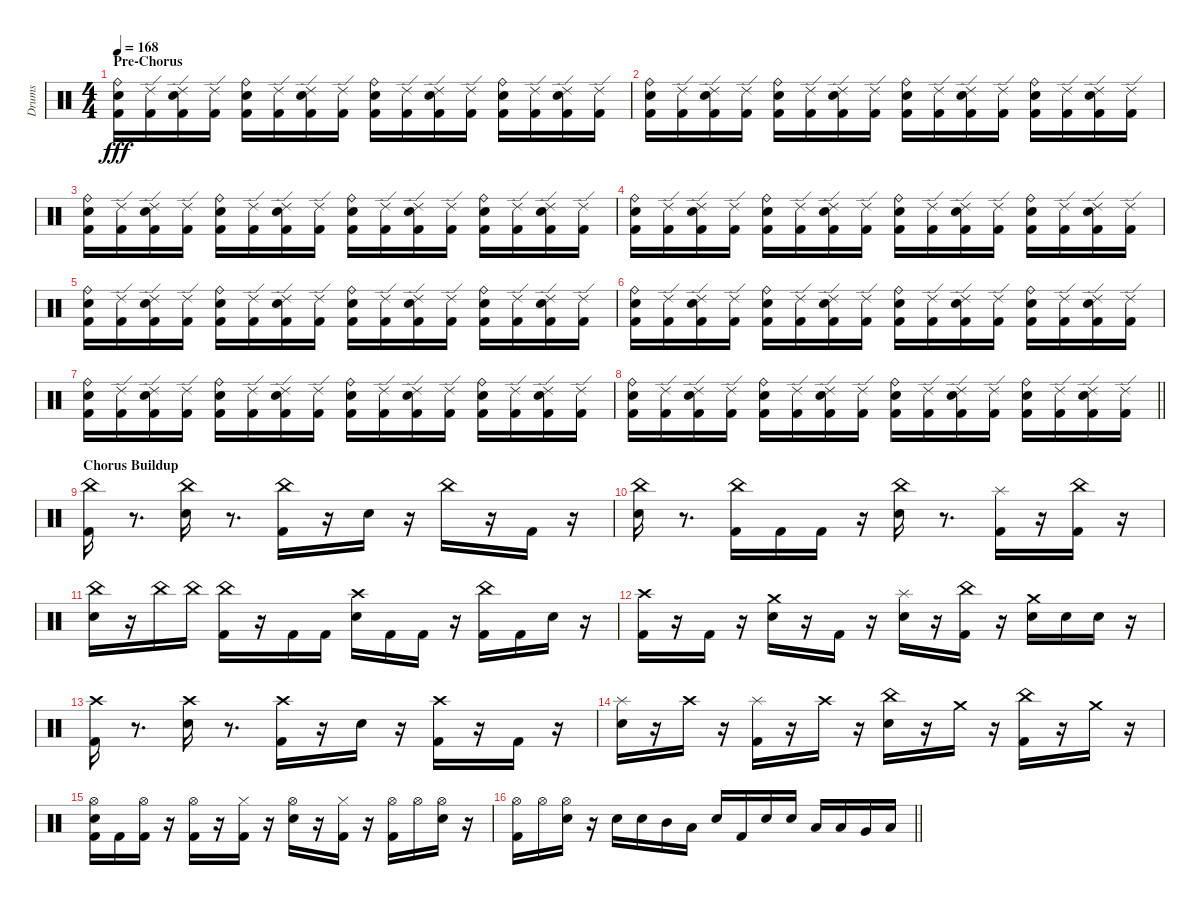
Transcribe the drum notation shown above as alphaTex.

\track ("Drums" "Drums") {instrument percussion}
\staff {score}
\articulation defaults
\ts (4 4)
\section ("" "Pre-Chorus")
\tempo 168
\clef neutral
\ks c
("Kick (hit) 2" "Snare (hit) 2" "Ride (bell)").16{dy fff} ("Kick (hit) 2" "Ride (edge) 2").16 ("Kick (hit) 2" "Snare (hit) 2" "Ride (edge) 2").16 ("Kick (hit) 2" "Ride (edge) 2").16 ("Kick (hit) 2" "Snare (hit) 2" "Ride (bell)").16 ("Kick (hit) 2" "Ride (edge) 2").16 ("Kick (hit) 2" "Snare (hit) 2" "Ride (edge) 2").16 ("Kick (hit) 2" "Ride (edge) 2").16 ("Kick (hit) 2" "Snare (hit) 2" "Ride (bell)").16 ("Kick (hit) 2" "Ride (edge) 2").16 ("Kick (hit) 2" "Snare (hit) 2" "Ride (edge) 2").16 ("Kick (hit) 2" "Ride (edge) 2").16 ("Kick (hit) 2" "Snare (hit) 2" "Ride (bell)").16 ("Kick (hit) 2" "Ride (edge) 2").16 ("Kick (hit) 2" "Snare (hit) 2" "Ride (edge) 2").16 ("Kick (hit) 2" "Ride (edge) 2").16 |
("Kick (hit) 2" "Snare (hit) 2" "Ride (bell)").16 ("Kick (hit) 2" "Ride (edge) 2").16 ("Kick (hit) 2" "Snare (hit) 2" "Ride (edge) 2").16 ("Kick (hit) 2" "Ride (edge) 2").16 ("Kick (hit) 2" "Snare (hit) 2" "Ride (bell)").16 ("Kick (hit) 2" "Ride (edge) 2").16 ("Kick (hit) 2" "Snare (hit) 2" "Ride (edge) 2").16 ("Kick (hit) 2" "Ride (edge) 2").16 ("Kick (hit) 2" "Snare (hit) 2" "Ride (bell)").16 ("Kick (hit) 2" "Ride (edge) 2").16 ("Kick (hit) 2" "Snare (hit) 2" "Ride (edge) 2").16 ("Kick (hit) 2" "Ride (edge) 2").16 ("Kick (hit) 2" "Snare (hit) 2" "Ride (bell)").16 ("Kick (hit) 2" "Ride (edge) 2").16 ("Kick (hit) 2" "Snare (hit) 2" "Ride (edge) 2").16 ("Kick (hit) 2" "Ride (edge) 2").16 |
("Kick (hit) 2" "Snare (hit) 2" "Ride (bell)").16 ("Kick (hit) 2" "Ride (edge) 2").16 ("Kick (hit) 2" "Snare (hit) 2" "Ride (edge) 2").16 ("Kick (hit) 2" "Ride (edge) 2").16 ("Kick (hit) 2" "Snare (hit) 2" "Ride (bell)").16 ("Kick (hit) 2" "Ride (edge) 2").16 ("Kick (hit) 2" "Snare (hit) 2" "Ride (edge) 2").16 ("Kick (hit) 2" "Ride (edge) 2").16 ("Kick (hit) 2" "Snare (hit) 2" "Ride (bell)").16 ("Kick (hit) 2" "Ride (edge) 2").16 ("Kick (hit) 2" "Snare (hit) 2" "Ride (edge) 2").16 ("Kick (hit) 2" "Ride (edge) 2").16 ("Kick (hit) 2" "Snare (hit) 2" "Ride (bell)").16 ("Kick (hit) 2" "Ride (edge) 2").16 ("Kick (hit) 2" "Snare (hit) 2" "Ride (edge) 2").16 ("Kick (hit) 2" "Ride (edge) 2").16 |
("Kick (hit) 2" "Snare (hit) 2" "Ride (bell)").16 ("Kick (hit) 2" "Ride (edge) 2").16 ("Kick (hit) 2" "Snare (hit) 2" "Ride (edge) 2").16 ("Kick (hit) 2" "Ride (edge) 2").16 ("Kick (hit) 2" "Snare (hit) 2" "Ride (bell)").16 ("Kick (hit) 2" "Ride (edge) 2").16 ("Kick (hit) 2" "Snare (hit) 2" "Ride (edge) 2").16 ("Kick (hit) 2" "Ride (edge) 2").16 ("Kick (hit) 2" "Snare (hit) 2" "Ride (bell)").16 ("Kick (hit) 2" "Ride (edge) 2").16 ("Kick (hit) 2" "Snare (hit) 2" "Ride (edge) 2").16 ("Kick (hit) 2" "Ride (edge) 2").16 ("Kick (hit) 2" "Snare (hit) 2" "Ride (bell)").16 ("Kick (hit) 2" "Ride (edge) 2").16 ("Kick (hit) 2" "Snare (hit) 2" "Ride (edge) 2").16 ("Kick (hit) 2" "Ride (edge) 2").16 |
("Kick (hit) 2" "Snare (hit) 2" "Ride (bell)").16 ("Kick (hit) 2" "Ride (edge) 2").16 ("Kick (hit) 2" "Snare (hit) 2" "Ride (edge) 2").16 ("Kick (hit) 2" "Ride (edge) 2").16 ("Kick (hit) 2" "Snare (hit) 2" "Ride (bell)").16 ("Kick (hit) 2" "Ride (edge) 2").16 ("Kick (hit) 2" "Snare (hit) 2" "Ride (edge) 2").16 ("Kick (hit) 2" "Ride (edge) 2").16 ("Kick (hit) 2" "Snare (hit) 2" "Ride (bell)").16 ("Kick (hit) 2" "Ride (edge) 2").16 ("Kick (hit) 2" "Snare (hit) 2" "Ride (edge) 2").16 ("Kick (hit) 2" "Ride (edge) 2").16 ("Kick (hit) 2" "Snare (hit) 2" "Ride (bell)").16 ("Kick (hit) 2" "Ride (edge) 2").16 ("Kick (hit) 2" "Snare (hit) 2" "Ride (edge) 2").16 ("Kick (hit) 2" "Ride (edge) 2").16 |
("Kick (hit) 2" "Snare (hit) 2" "Ride (bell)").16 ("Kick (hit) 2" "Ride (edge) 2").16 ("Kick (hit) 2" "Snare (hit) 2" "Ride (edge) 2").16 ("Kick (hit) 2" "Ride (edge) 2").16 ("Kick (hit) 2" "Snare (hit) 2" "Ride (bell)").16 ("Kick (hit) 2" "Ride (edge) 2").16 ("Kick (hit) 2" "Snare (hit) 2" "Ride (edge) 2").16 ("Kick (hit) 2" "Ride (edge) 2").16 ("Kick (hit) 2" "Snare (hit) 2" "Ride (bell)").16 ("Kick (hit) 2" "Ride (edge) 2").16 ("Kick (hit) 2" "Snare (hit) 2" "Ride (edge) 2").16 ("Kick (hit) 2" "Ride (edge) 2").16 ("Kick (hit) 2" "Snare (hit) 2" "Ride (bell)").16 ("Kick (hit) 2" "Ride (edge) 2").16 ("Kick (hit) 2" "Snare (hit) 2" "Ride (edge) 2").16 ("Kick (hit) 2" "Ride (edge) 2").16 |
("Kick (hit) 2" "Snare (hit) 2" "Ride (bell)").16 ("Kick (hit) 2" "Ride (edge) 2").16 ("Kick (hit) 2" "Snare (hit) 2" "Ride (edge) 2").16 ("Kick (hit) 2" "Ride (edge) 2").16 ("Kick (hit) 2" "Snare (hit) 2" "Ride (bell)").16 ("Kick (hit) 2" "Ride (edge) 2").16 ("Kick (hit) 2" "Snare (hit) 2" "Ride (edge) 2").16 ("Kick (hit) 2" "Ride (edge) 2").16 ("Kick (hit) 2" "Snare (hit) 2" "Ride (bell)").16 ("Kick (hit) 2" "Ride (edge) 2").16 ("Kick (hit) 2" "Snare (hit) 2" "Ride (edge) 2").16 ("Kick (hit) 2" "Ride (edge) 2").16 ("Kick (hit) 2" "Snare (hit) 2" "Ride (bell)").16 ("Kick (hit) 2" "Ride (edge) 2").16 ("Kick (hit) 2" "Snare (hit) 2" "Ride (edge) 2").16 ("Kick (hit) 2" "Ride (edge) 2").16 |
\barLineRight lightlight
("Kick (hit) 2" "Snare (hit) 2" "Ride (bell)").16 ("Kick (hit) 2" "Ride (edge) 2").16 ("Kick (hit) 2" "Snare (hit) 2" "Ride (edge) 2").16 ("Kick (hit) 2" "Ride (edge) 2").16 ("Kick (hit) 2" "Snare (hit) 2" "Ride (bell)").16 ("Kick (hit) 2" "Ride (edge) 2").16 ("Kick (hit) 2" "Snare (hit) 2" "Ride (edge) 2").16 ("Kick (hit) 2" "Ride (edge) 2").16 ("Kick (hit) 2" "Snare (hit) 2" "Ride (bell)").16 ("Kick (hit) 2" "Ride (edge) 2").16 ("Kick (hit) 2" "Snare (hit) 2" "Ride (edge) 2").16 ("Kick (hit) 2" "Ride (edge) 2").16 ("Kick (hit) 2" "Snare (hit) 2" "Ride (bell)").16 ("Kick (hit) 2" "Ride (edge) 2").16 ("Kick (hit) 2" "Snare (hit) 2" "Ride (edge) 2").16 ("Kick (hit) 2" "Ride (edge) 2").16 |
\section ("" "Chorus Buildup")
("Kick (hit) 2" "China (hit)").16 r.8{d} ("Snare (hit) 2" "China (hit)").16 r.8{d} ("Kick (hit) 2" "China (hit)").16 r.16 "Snare (hit) 2".16 r.16 "China (hit)".16 r.16 "Kick (hit) 2".16 r.16 |
("Snare (hit) 2" "China (hit)").16 r.8{d} ("Kick (hit) 2" "China (hit)").16 "Kick (hit) 2".16 "Kick (hit) 2".16 r.16 ("Snare (hit) 2" "China (hit)").16 r.8{d} ("Kick (hit) 2" "Splash (hit)").16 r.16 ("Kick (hit) 2" "China (hit)").16 r.16 |
("Snare (hit) 2" "China (hit)").16 r.16 "China (hit)".16 "China (hit)".16 ("Kick (hit) 2" "China (hit)").16 r.16 "Kick (hit) 2".16 "Kick (hit) 2".16 ("Snare (hit) 2" "Crash high (hit)").16 "Kick (hit) 2".16 "Kick (hit) 2".16 r.16 ("Kick (hit) 2" "China (hit)").16 "Kick (hit) 2".16 "Snare (hit) 2".16 r.16 |
("Kick (hit) 2" "Crash high (hit)").16 r.16 "Kick (hit) 2".16 r.16 ("Snare (hit) 2" "Crash medium (hit)").16 r.16 "Kick (hit) 2".16 r.16 ("Snare (hit) 2" "Splash (hit)").16 r.16 ("Kick (hit) 2" "China (hit)").16 r.16 ("Snare (hit) 2" "Crash medium (hit)").16 "Snare (hit) 2".16 "Snare (hit) 2".16 r.16 |
("Kick (hit) 2" "Crash high (hit)").16 r.8{d} ("Snare (hit) 2" "Crash high (hit)").16 r.8{d} ("Kick (hit) 2" "Crash high (hit)").16 r.16 "Snare (hit) 2".16 r.16 ("Kick (hit) 2" "Crash high (hit)").16 r.16 "Kick (hit) 2".16 r.16 |
("Snare (hit) 2" "Splash (hit)").16 r.16 "Crash high (hit)".16 r.16 ("Kick (hit) 2" "Splash (hit)").16 r.16 "Crash high (hit)".16 r.16 ("Snare (hit) 2" "China (hit)").16 r.16 "Crash medium (hit)".16 r.16 ("Kick (hit) 2" "China (hit)").16 r.16 "Crash medium (hit)".16 r.16 |
("Kick (hit) 2" "Snare (hit) 2" "Hi-Hat (open)").16 "Kick (hit) 2".16 ("Kick (hit) 2" "Hi-Hat (open)").16 r.16 ("Kick (hit) 2" "Hi-Hat (open)").16 r.16 ("Kick (hit) 2" "Hi-Hat (closed)").16 r.16 ("Snare (hit) 2" "Hi-Hat (open)").16 r.16 ("Kick (hit) 2" "Hi-Hat (closed)").16 r.16 ("Kick (hit) 2" "Hi-Hat (open)").16 "Hi-Hat (open)".16 ("Snare (hit) 2" "Hi-Hat (open)").16 r.16 |
\barLineRight lightlight
("Kick (hit) 2" "Hi-Hat (open)").16 "Hi-Hat (open)".16 ("Snare (hit) 2" "Hi-Hat (open)").16 r.16 "Snare (hit) 2".16 "Snare (hit) 2".16 "Mid Tom (hit)".16 "Low Tom (hit)".16 "Snare (hit) 2".16 "Kick (hit) 2".16 "Snare (hit) 2".16 "Snare (hit) 2".16 "Low Tom (hit)".16 "Low Tom (hit)".16 "Very Low Tom (hit)".16 "Low Floor Tom (hit)".16
